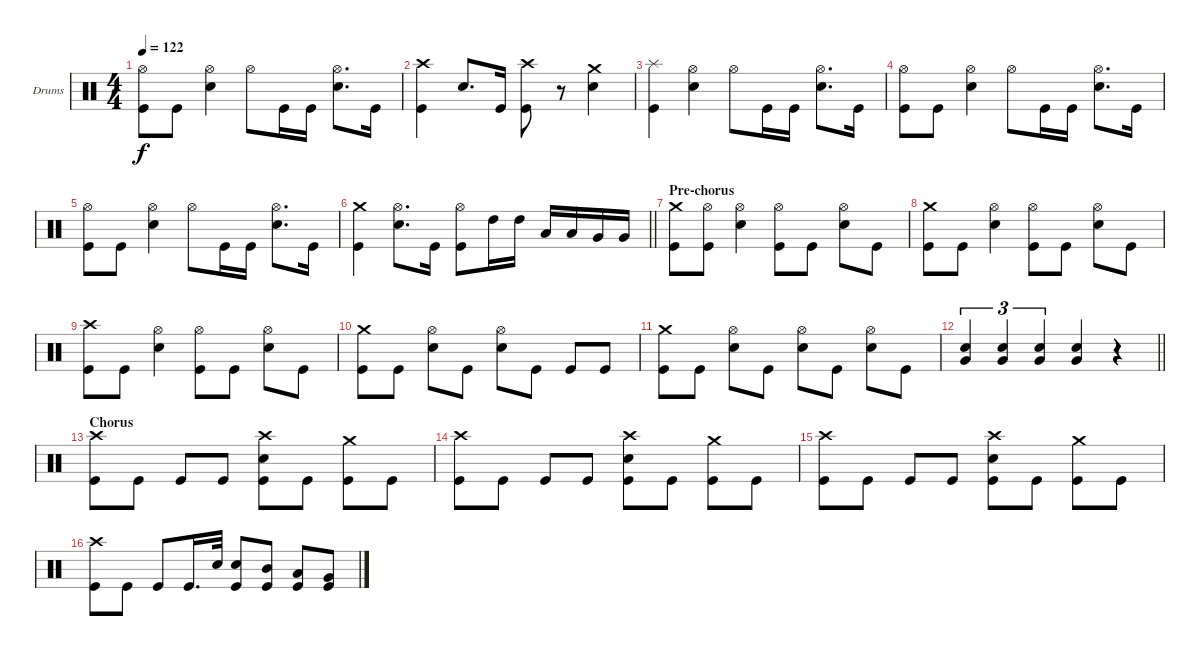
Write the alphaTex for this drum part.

\bracketExtendMode groupsimilarinstruments
\firstSystemTrackNameOrientation horizontal
\otherSystemsTrackNameOrientation horizontal
\track ("Brent Fitz" "Drums") {instrument percussion}
\staff {score}
\articulation defaults
\ts (4 4)
\tempo 122
\clef neutral
\ks c
("Kick (hit)" "Hi-Hat (open)").8{dy f} "Kick (hit)".8 ("Snare (hit) 2" "Hi-Hat (open)").4 "Hi-Hat (open)".8 "Kick (hit)".16 "Kick (hit)".16 ("Snare (hit) 2" "Hi-Hat (open)").8{d} "Kick (hit)".16 |
("Kick (hit)" "Crash high (hit)").4 "Snare (hit) 2".8{d} "Kick (hit)".16 ("Kick (hit)" "Crash high (hit)").8 r.8 ("Snare (hit) 2" "Crash medium (hit)").4 |
("Kick (hit)" "Splash (hit)").4 ("Snare (hit) 2" "Hi-Hat (open)").4 "Hi-Hat (open)".8 "Kick (hit)".16 "Kick (hit)".16 ("Snare (hit) 2" "Hi-Hat (open)").8{d} "Kick (hit)".16 |
("Kick (hit)" "Hi-Hat (open)").8 "Kick (hit)".8 ("Snare (hit) 2" "Hi-Hat (open)").4 "Hi-Hat (open)".8 "Kick (hit)".16 "Kick (hit)".16 ("Snare (hit) 2" "Hi-Hat (open)").8{d} "Kick (hit)".16 |
("Kick (hit)" "Hi-Hat (open)").8 "Kick (hit)".8 ("Snare (hit) 2" "Hi-Hat (open)").4 "Hi-Hat (open)".8 "Kick (hit)".16 "Kick (hit)".16 ("Snare (hit) 2" "Hi-Hat (open)").8{d} "Kick (hit)".16 |
\barLineRight lightlight
("Kick (hit)" "Crash medium (hit)").4 ("Snare (hit) 2" "Hi-Hat (open)").8{d} "Kick (hit)".16 ("Kick (hit)" "Hi-Hat (open)").8 "High Tom (hit)".16 "High Tom (hit)".16 "Low Tom (hit)".16 "Low Tom (hit)".16 "Very Low Tom (hit)".16 "Very Low Tom (hit)".16 |
\section ("" "Pre-chorus")
("Kick (hit)" "Crash medium (hit)").8 ("Kick (hit)" "Hi-Hat (open)").8 ("Snare (hit) 2" "Hi-Hat (open)").4 ("Kick (hit)" "Hi-Hat (open)").8 "Kick (hit)".8 ("Snare (hit) 2" "Hi-Hat (open)").8 "Kick (hit)".8 |
("Kick (hit)" "Crash medium (hit)").8 "Kick (hit)".8 ("Snare (hit) 2" "Hi-Hat (open)").4 ("Kick (hit)" "Hi-Hat (open)").8 "Kick (hit)".8 ("Snare (hit) 2" "Hi-Hat (open)").8 "Kick (hit)".8 |
("Kick (hit)" "Crash high (hit)").8 "Kick (hit)".8 ("Snare (hit) 2" "Hi-Hat (open)").4 ("Kick (hit)" "Hi-Hat (open)").8 "Kick (hit)".8 ("Snare (hit) 2" "Hi-Hat (open)").8 "Kick (hit)".8 |
("Kick (hit)" "Crash medium (hit)").8 "Kick (hit)".8 ("Snare (hit) 2" "Hi-Hat (open)").8 "Kick (hit)".8 ("Snare (hit) 2" "Hi-Hat (open)").8 "Kick (hit)".8 "Kick (hit)".8 "Kick (hit)".8 |
("Kick (hit)" "Crash medium (hit)").8 "Kick (hit)".8 ("Snare (hit) 2" "Hi-Hat (open)").8 "Kick (hit)".8 ("Snare (hit) 2" "Hi-Hat (open)").8 "Kick (hit)".8 ("Snare (hit) 2" "Hi-Hat (open)").8 "Kick (hit)".8 |
\barLineRight lightlight
("Snare (hit) 2" "Very Low Tom (hit)").4{tu (3 2)} ("Snare (hit) 2" "Very Low Tom (hit)").4{tu (3 2)} ("Snare (hit) 2" "Very Low Tom (hit)").4{tu (3 2)} ("Snare (hit) 2" "Very Low Tom (hit)").4 r.4 |
\section ("" "Chorus")
("Kick (hit)" "Crash high (hit)").8 "Kick (hit)".8 "Kick (hit)".8 "Kick (hit)".8 ("Snare (hit) 2" "Crash high (hit)" "Kick (hit)").8 "Kick (hit)".8 ("Kick (hit)" "Crash medium (hit)").8 "Kick (hit)".8 |
("Kick (hit)" "Crash high (hit)").8 "Kick (hit)".8 "Kick (hit)".8 "Kick (hit)".8 ("Snare (hit) 2" "Crash high (hit)" "Kick (hit)").8 "Kick (hit)".8 ("Kick (hit)" "Crash medium (hit)").8 "Kick (hit)".8 |
("Kick (hit)" "Crash high (hit)").8 "Kick (hit)".8 "Kick (hit)".8 "Kick (hit)".8 ("Snare (hit) 2" "Crash high (hit)" "Kick (hit)").8 "Kick (hit)".8 ("Kick (hit)" "Crash medium (hit)").8 "Kick (hit)".8 |
("Kick (hit)" "Crash high (hit)").8 "Kick (hit)".8 "Kick (hit)".8 "Kick (hit)".16{d} "Snare (hit) 2".32 ("Snare (hit) 2" "Kick (hit)").8 ("Mid Tom (hit)" "Kick (hit)").8 ("Low Tom (hit)" "Kick (hit)").8 ("Very Low Tom (hit)" "Kick (hit)").8
